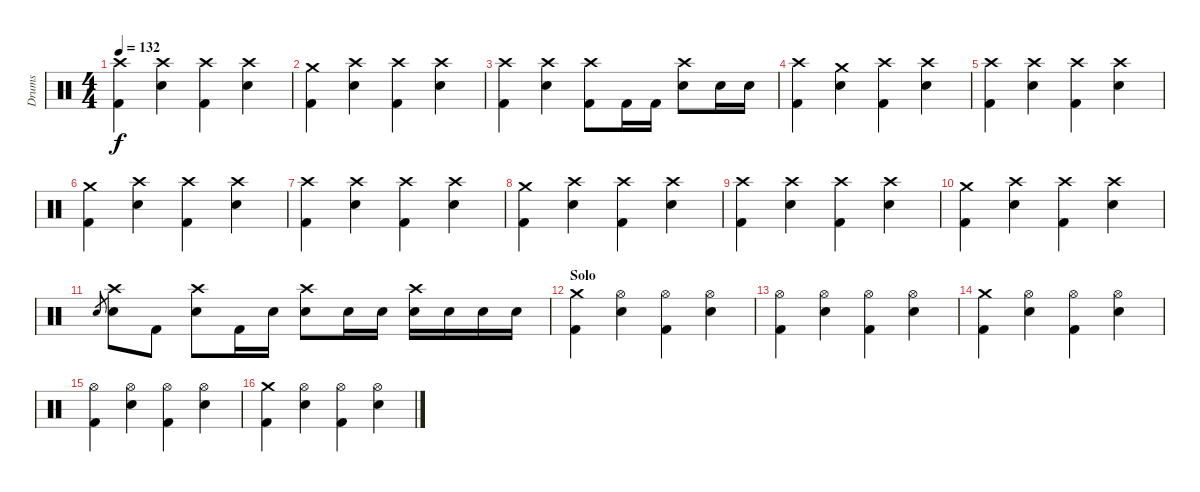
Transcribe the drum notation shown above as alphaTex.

\track ("Drums" "Drums") {instrument percussion}
\staff {score}
\articulation defaults
\ts (4 4)
\tempo 132
\clef neutral
\ks c
("Kick (hit) 2" "Crash high (hit)").4{dy f} ("Crash high (hit)" "Snare (hit) 2").4 ("Kick (hit) 2" "Crash high (hit)").4 ("Crash high (hit)" "Snare (hit) 2").4 |
("Kick (hit) 2" "Crash medium (hit)").4 ("Crash high (hit)" "Snare (hit) 2").4 ("Kick (hit) 2" "Crash high (hit)").4 ("Crash high (hit)" "Snare (hit) 2").4 |
("Kick (hit) 2" "Crash high (hit)").4 ("Crash high (hit)" "Snare (hit) 2").4 ("Kick (hit) 2" "Crash high (hit)").8 "Kick (hit) 2".16 "Kick (hit) 2".16 ("Crash high (hit)" "Snare (hit) 2").8 "Snare (hit) 2".16 "Snare (hit) 2".16 |
("Kick (hit) 2" "Crash high (hit)").4 ("Crash medium (hit)" "Snare (hit) 2").4 ("Kick (hit) 2" "Crash high (hit)").4 ("Crash high (hit)" "Snare (hit) 2").4 |
("Kick (hit) 2" "Crash high (hit)").4 ("Crash high (hit)" "Snare (hit) 2").4 ("Kick (hit) 2" "Crash high (hit)").4 ("Crash high (hit)" "Snare (hit) 2").4 |
("Kick (hit) 2" "Crash medium (hit)").4 ("Crash high (hit)" "Snare (hit) 2").4 ("Kick (hit) 2" "Crash high (hit)").4 ("Crash high (hit)" "Snare (hit) 2").4 |
("Kick (hit) 2" "Crash high (hit)").4 ("Crash high (hit)" "Snare (hit) 2").4 ("Kick (hit) 2" "Crash high (hit)").4 ("Crash high (hit)" "Snare (hit) 2").4 |
("Kick (hit) 2" "Crash medium (hit)").4 ("Crash high (hit)" "Snare (hit) 2").4 ("Kick (hit) 2" "Crash high (hit)").4 ("Crash high (hit)" "Snare (hit) 2").4 |
("Kick (hit) 2" "Crash high (hit)").4 ("Crash high (hit)" "Snare (hit) 2").4 ("Kick (hit) 2" "Crash high (hit)").4 ("Crash high (hit)" "Snare (hit) 2").4 |
("Kick (hit) 2" "Crash medium (hit)").4 ("Crash high (hit)" "Snare (hit) 2").4 ("Kick (hit) 2" "Crash high (hit)").4 ("Crash high (hit)" "Snare (hit) 2").4 |
"Snare (hit) 2".8{gr} ("Crash high (hit)" "Snare (hit) 2").8 "Kick (hit) 2".8 ("Crash high (hit)" "Snare (hit) 2").8 "Kick (hit) 2".16 "Snare (hit) 2".16 ("Crash high (hit)" "Snare (hit) 2").8 "Snare (hit) 2".16 "Snare (hit) 2".16 ("Crash high (hit)" "Snare (hit) 2").16 "Snare (hit) 2".16 "Snare (hit) 2".16 "Snare (hit) 2".16 |
\section ("" "Solo")
("Kick (hit) 2" "Crash medium (hit)").4 ("Hi-Hat (open)" "Snare (hit) 2").4 ("Kick (hit) 2" "Hi-Hat (open)").4 ("Hi-Hat (open)" "Snare (hit) 2").4 |
("Kick (hit) 2" "Hi-Hat (open)").4 ("Hi-Hat (open)" "Snare (hit) 2").4 ("Kick (hit) 2" "Hi-Hat (open)").4 ("Hi-Hat (open)" "Snare (hit) 2").4 |
("Kick (hit) 2" "Crash medium (hit)").4 ("Hi-Hat (open)" "Snare (hit) 2").4 ("Kick (hit) 2" "Hi-Hat (open)").4 ("Hi-Hat (open)" "Snare (hit) 2").4 |
("Kick (hit) 2" "Hi-Hat (open)").4 ("Hi-Hat (open)" "Snare (hit) 2").4 ("Kick (hit) 2" "Hi-Hat (open)").4 ("Hi-Hat (open)" "Snare (hit) 2").4 |
("Kick (hit) 2" "Crash medium (hit)").4 ("Hi-Hat (open)" "Snare (hit) 2").4 ("Kick (hit) 2" "Hi-Hat (open)").4 ("Hi-Hat (open)" "Snare (hit) 2").4
